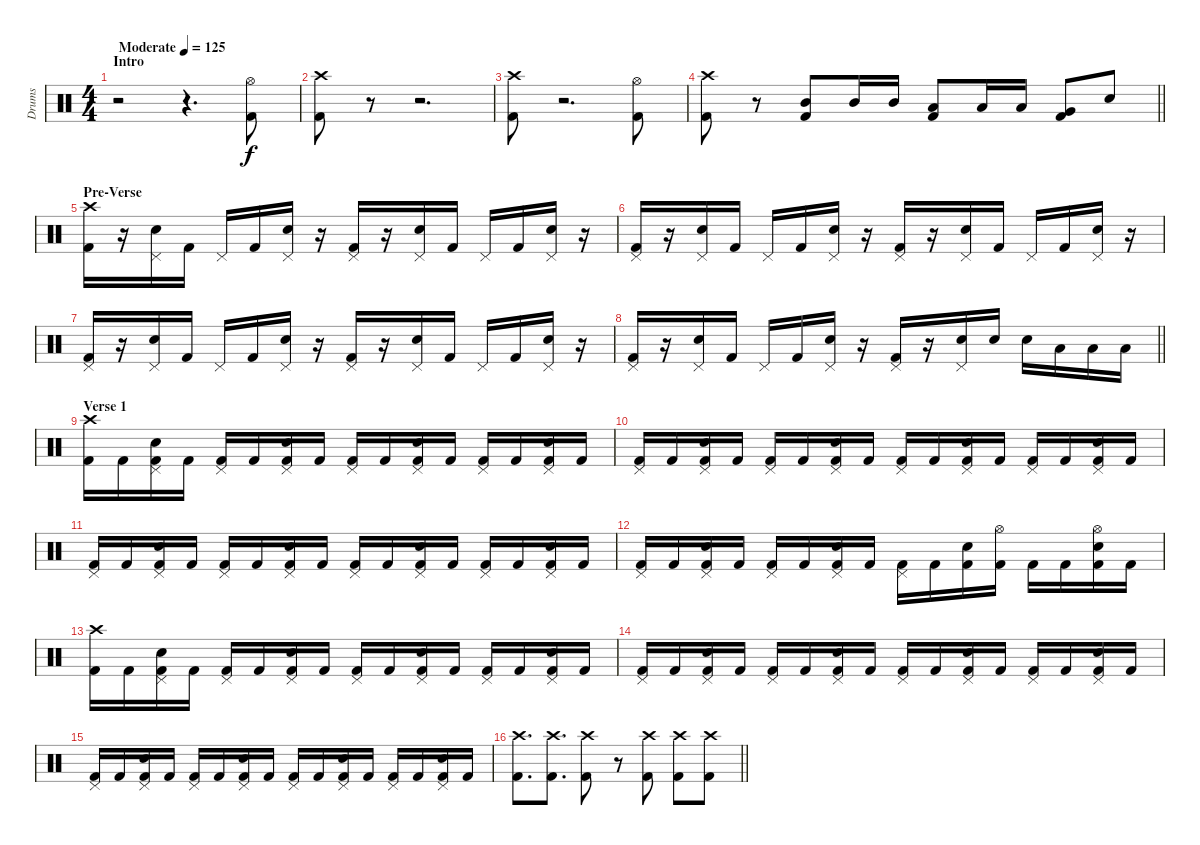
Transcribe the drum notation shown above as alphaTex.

\track ("Drums" "Drums") {instrument percussion}
\staff {score}
\articulation defaults
\ts (4 4)
\section ("" "Intro")
\tempo (125 "Moderate")
\clef neutral
\ks c
r.2{dy f} r.4{d} ("Hi-Hat (open)" "Kick (hit) 2").8 |
("Crash high (hit)" "Kick (hit) 2").8 r.8 r.2{d} |
("Crash high (hit)" "Kick (hit) 2").8 r.2{d} ("Hi-Hat (open)" "Kick (hit) 2").8 |
\barLineRight lightlight
("Crash high (hit)" "Kick (hit) 2").8 r.8 ("Mid Tom (hit)" "Kick (hit) 2").8 "Mid Tom (hit)".16 "Mid Tom (hit)".16 ("Low Tom (hit)" "Kick (hit) 2").8 "Low Tom (hit)".16 "Low Tom (hit)".16 ("Very Low Tom (hit)" "Kick (hit) 2").8 "Snare (hit) 2".8 |
\section ("" "Pre-Verse")
("Crash high (hit)" "Kick (hit) 2").16 r.16 ("Pedal Hi-Hat (hit)" "Snare (hit) 2").16 "Kick (hit) 2".16 "Pedal Hi-Hat (hit)".16 "Kick (hit) 2".16 ("Pedal Hi-Hat (hit)" "Snare (hit) 2").16 r.16 ("Pedal Hi-Hat (hit)" "Kick (hit) 2").16 r.16 ("Pedal Hi-Hat (hit)" "Snare (hit) 2").16 "Kick (hit) 2".16 "Pedal Hi-Hat (hit)".16 "Kick (hit) 2".16 ("Pedal Hi-Hat (hit)" "Snare (hit) 2").16 r.16 |
("Pedal Hi-Hat (hit)" "Kick (hit) 2").16 r.16 ("Pedal Hi-Hat (hit)" "Snare (hit) 2").16 "Kick (hit) 2".16 "Pedal Hi-Hat (hit)".16 "Kick (hit) 2".16 ("Pedal Hi-Hat (hit)" "Snare (hit) 2").16 r.16 ("Pedal Hi-Hat (hit)" "Kick (hit) 2").16 r.16 ("Pedal Hi-Hat (hit)" "Snare (hit) 2").16 "Kick (hit) 2".16 "Pedal Hi-Hat (hit)".16 "Kick (hit) 2".16 ("Pedal Hi-Hat (hit)" "Snare (hit) 2").16 r.16 |
("Pedal Hi-Hat (hit)" "Kick (hit) 2").16 r.16 ("Pedal Hi-Hat (hit)" "Snare (hit) 2").16 "Kick (hit) 2".16 "Pedal Hi-Hat (hit)".16 "Kick (hit) 2".16 ("Pedal Hi-Hat (hit)" "Snare (hit) 2").16 r.16 ("Pedal Hi-Hat (hit)" "Kick (hit) 2").16 r.16 ("Pedal Hi-Hat (hit)" "Snare (hit) 2").16 "Kick (hit) 2".16 "Pedal Hi-Hat (hit)".16 "Kick (hit) 2".16 ("Pedal Hi-Hat (hit)" "Snare (hit) 2").16 r.16 |
\barLineRight lightlight
("Pedal Hi-Hat (hit)" "Kick (hit) 2").16 r.16 ("Pedal Hi-Hat (hit)" "Snare (hit) 2").16 "Kick (hit) 2".16 "Pedal Hi-Hat (hit)".16 "Kick (hit) 2".16 ("Pedal Hi-Hat (hit)" "Snare (hit) 2").16 r.16 ("Pedal Hi-Hat (hit)" "Kick (hit) 2").16 r.16 ("Pedal Hi-Hat (hit)" "Snare (hit) 2").16 "Snare (hit) 2".16 "Snare (hit) 2".16 "Low Tom (hit)".16 "Low Tom (hit)".16 "Low Tom (hit)".16 |
\section ("" "Verse 1")
("Crash high (hit)" "Kick (hit) 2").16 "Kick (hit) 2".16 ("Pedal Hi-Hat (hit)" "Snare (hit) 2" "Kick (hit) 2").16 "Kick (hit) 2".16 ("Pedal Hi-Hat (hit)" "Kick (hit) 2").16 "Kick (hit) 2".16 ("Pedal Hi-Hat (hit)" "Snare (hit) 2" "Kick (hit) 2").16 "Kick (hit) 2".16 ("Pedal Hi-Hat (hit)" "Kick (hit) 2").16 "Kick (hit) 2".16 ("Pedal Hi-Hat (hit)" "Snare (hit) 2" "Kick (hit) 2").16 "Kick (hit) 2".16 ("Pedal Hi-Hat (hit)" "Kick (hit) 2").16 "Kick (hit) 2".16 ("Pedal Hi-Hat (hit)" "Snare (hit) 2" "Kick (hit) 2").16 "Kick (hit) 2".16 |
("Pedal Hi-Hat (hit)" "Kick (hit) 2").16 "Kick (hit) 2".16 ("Pedal Hi-Hat (hit)" "Snare (hit) 2" "Kick (hit) 2").16 "Kick (hit) 2".16 ("Pedal Hi-Hat (hit)" "Kick (hit) 2").16 "Kick (hit) 2".16 ("Pedal Hi-Hat (hit)" "Snare (hit) 2" "Kick (hit) 2").16 "Kick (hit) 2".16 ("Pedal Hi-Hat (hit)" "Kick (hit) 2").16 "Kick (hit) 2".16 ("Pedal Hi-Hat (hit)" "Snare (hit) 2" "Kick (hit) 2").16 "Kick (hit) 2".16 ("Pedal Hi-Hat (hit)" "Kick (hit) 2").16 "Kick (hit) 2".16 ("Pedal Hi-Hat (hit)" "Snare (hit) 2" "Kick (hit) 2").16 "Kick (hit) 2".16 |
("Pedal Hi-Hat (hit)" "Kick (hit) 2").16 "Kick (hit) 2".16 ("Pedal Hi-Hat (hit)" "Snare (hit) 2" "Kick (hit) 2").16 "Kick (hit) 2".16 ("Pedal Hi-Hat (hit)" "Kick (hit) 2").16 "Kick (hit) 2".16 ("Pedal Hi-Hat (hit)" "Snare (hit) 2" "Kick (hit) 2").16 "Kick (hit) 2".16 ("Pedal Hi-Hat (hit)" "Kick (hit) 2").16 "Kick (hit) 2".16 ("Pedal Hi-Hat (hit)" "Snare (hit) 2" "Kick (hit) 2").16 "Kick (hit) 2".16 ("Pedal Hi-Hat (hit)" "Kick (hit) 2").16 "Kick (hit) 2".16 ("Pedal Hi-Hat (hit)" "Snare (hit) 2" "Kick (hit) 2").16 "Kick (hit) 2".16 |
("Pedal Hi-Hat (hit)" "Kick (hit) 2").16 "Kick (hit) 2".16 ("Pedal Hi-Hat (hit)" "Snare (hit) 2" "Kick (hit) 2").16 "Kick (hit) 2".16 ("Pedal Hi-Hat (hit)" "Kick (hit) 2").16 "Kick (hit) 2".16 ("Pedal Hi-Hat (hit)" "Snare (hit) 2" "Kick (hit) 2").16 "Kick (hit) 2".16 ("Pedal Hi-Hat (hit)" "Kick (hit) 2").16 "Kick (hit) 2".16 ("Snare (hit) 2" "Kick (hit) 2").16 ("Hi-Hat (open)" "Kick (hit) 2").16 "Kick (hit) 2".16 "Kick (hit) 2".16 ("Hi-Hat (open)" "Snare (hit) 2" "Kick (hit) 2").16 "Kick (hit) 2".16 |
("Crash high (hit)" "Kick (hit) 2").16 "Kick (hit) 2".16 ("Pedal Hi-Hat (hit)" "Snare (hit) 2" "Kick (hit) 2").16 "Kick (hit) 2".16 ("Pedal Hi-Hat (hit)" "Kick (hit) 2").16 "Kick (hit) 2".16 ("Pedal Hi-Hat (hit)" "Snare (hit) 2" "Kick (hit) 2").16 "Kick (hit) 2".16 ("Pedal Hi-Hat (hit)" "Kick (hit) 2").16 "Kick (hit) 2".16 ("Pedal Hi-Hat (hit)" "Snare (hit) 2" "Kick (hit) 2").16 "Kick (hit) 2".16 ("Pedal Hi-Hat (hit)" "Kick (hit) 2").16 "Kick (hit) 2".16 ("Pedal Hi-Hat (hit)" "Snare (hit) 2" "Kick (hit) 2").16 "Kick (hit) 2".16 |
("Pedal Hi-Hat (hit)" "Kick (hit) 2").16 "Kick (hit) 2".16 ("Pedal Hi-Hat (hit)" "Snare (hit) 2" "Kick (hit) 2").16 "Kick (hit) 2".16 ("Pedal Hi-Hat (hit)" "Kick (hit) 2").16 "Kick (hit) 2".16 ("Pedal Hi-Hat (hit)" "Snare (hit) 2" "Kick (hit) 2").16 "Kick (hit) 2".16 ("Pedal Hi-Hat (hit)" "Kick (hit) 2").16 "Kick (hit) 2".16 ("Pedal Hi-Hat (hit)" "Snare (hit) 2" "Kick (hit) 2").16 "Kick (hit) 2".16 ("Pedal Hi-Hat (hit)" "Kick (hit) 2").16 "Kick (hit) 2".16 ("Pedal Hi-Hat (hit)" "Snare (hit) 2" "Kick (hit) 2").16 "Kick (hit) 2".16 |
("Pedal Hi-Hat (hit)" "Kick (hit) 2").16 "Kick (hit) 2".16 ("Pedal Hi-Hat (hit)" "Snare (hit) 2" "Kick (hit) 2").16 "Kick (hit) 2".16 ("Pedal Hi-Hat (hit)" "Kick (hit) 2").16 "Kick (hit) 2".16 ("Pedal Hi-Hat (hit)" "Snare (hit) 2" "Kick (hit) 2").16 "Kick (hit) 2".16 ("Pedal Hi-Hat (hit)" "Kick (hit) 2").16 "Kick (hit) 2".16 ("Pedal Hi-Hat (hit)" "Snare (hit) 2" "Kick (hit) 2").16 "Kick (hit) 2".16 ("Pedal Hi-Hat (hit)" "Kick (hit) 2").16 "Kick (hit) 2".16 ("Pedal Hi-Hat (hit)" "Snare (hit) 2" "Kick (hit) 2").16 "Kick (hit) 2".16 |
\barLineRight lightlight
("Crash high (hit)" "Kick (hit) 2").8{d} ("Crash high (hit)" "Kick (hit) 2").8{d} ("Crash high (hit)" "Kick (hit) 2").8 r.8 ("Crash high (hit)" "Kick (hit) 2").8 ("Crash high (hit)" "Kick (hit) 2").8 ("Crash high (hit)" "Kick (hit) 2").8
